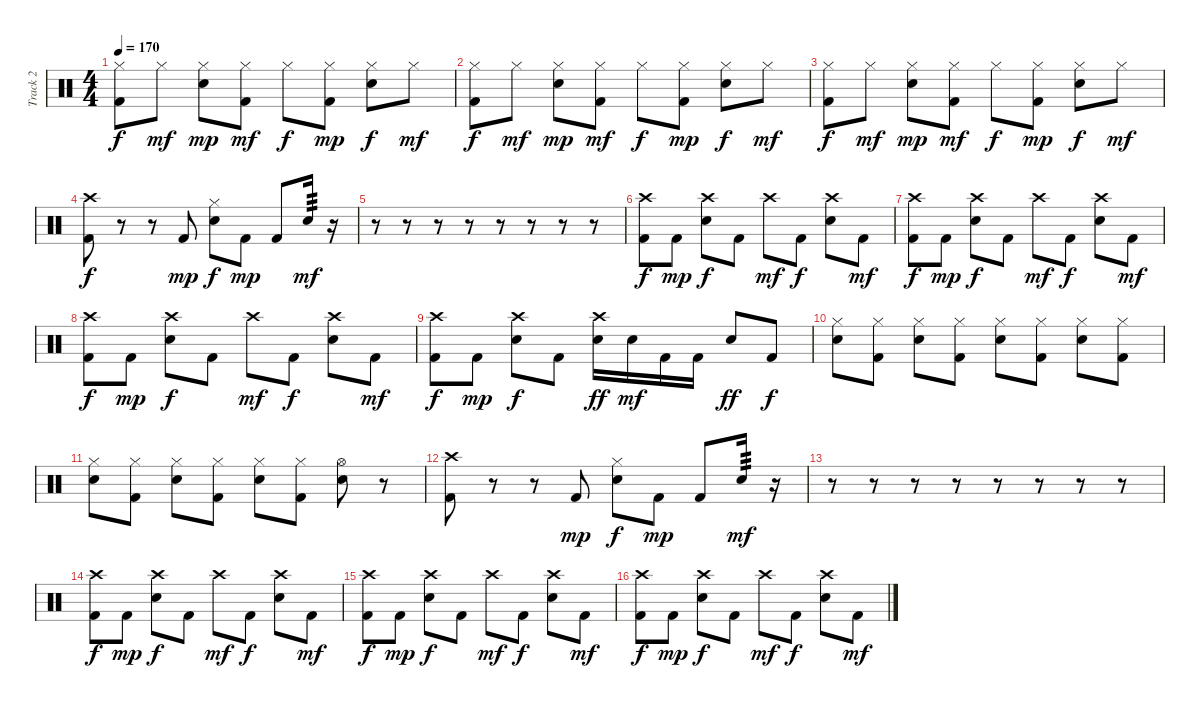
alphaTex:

\track ("Track 2" "Track 2") {instrument percussion}
\staff {score}
\articulation defaults
\ts (4 4)
\tempo 170
\clef neutral
\ks c
("Hi-Hat (closed)" "Kick (hit) 2").8{dy f} "Hi-Hat (closed)".8{dy mf} ("Hi-Hat (closed)" "Electric Snare (hit)").8{dy mp} ("Hi-Hat (closed)" "Kick (hit) 2").8{dy mf} "Hi-Hat (closed)".8{dy f} ("Hi-Hat (closed)" "Kick (hit) 2").8{dy mp} ("Hi-Hat (closed)" "Electric Snare (hit)").8{dy f} "Hi-Hat (closed)".8{dy mf} |
("Hi-Hat (closed)" "Kick (hit) 2").8{dy f} "Hi-Hat (closed)".8{dy mf} ("Hi-Hat (closed)" "Electric Snare (hit)").8{dy mp} ("Hi-Hat (closed)" "Kick (hit) 2").8{dy mf} "Hi-Hat (closed)".8{dy f} ("Hi-Hat (closed)" "Kick (hit) 2").8{dy mp} ("Hi-Hat (closed)" "Electric Snare (hit)").8{dy f} "Hi-Hat (closed)".8{dy mf} |
("Hi-Hat (closed)" "Kick (hit) 2").8{dy f} "Hi-Hat (closed)".8{dy mf} ("Hi-Hat (closed)" "Electric Snare (hit)").8{dy mp} ("Hi-Hat (closed)" "Kick (hit) 2").8{dy mf} "Hi-Hat (closed)".8{dy f} ("Hi-Hat (closed)" "Kick (hit) 2").8{dy mp} ("Hi-Hat (closed)" "Electric Snare (hit)").8{dy f} "Hi-Hat (closed)".8{dy mf} |
("Crash high (hit)" "Kick (hit) 2").8{dy f} r.8 r.8 "Kick (hit) 2".8{dy mp} ("Hi-Hat (closed)" "Electric Snare (hit)").8{dy f} "Kick (hit) 2".8{dy mp} "Kick (hit) 2".8 "Electric Snare (hit)".16{tp 3 dy mf} r.16 |
r.8 r.8 r.8 r.8 r.8 r.8 r.8 r.8 |
("Crash high (hit)" "Kick (hit) 2").8{dy f} "Kick (hit) 2".8{dy mp} ("Crash high (hit)" "Electric Snare (hit)").8{dy f} "Kick (hit) 2".8 "Crash high (hit)".8{dy mf} "Kick (hit) 2".8{dy f} ("Crash high (hit)" "Electric Snare (hit)").8 "Kick (hit) 2".8{dy mf} |
("Crash high (hit)" "Kick (hit) 2").8{dy f} "Kick (hit) 2".8{dy mp} ("Crash high (hit)" "Electric Snare (hit)").8{dy f} "Kick (hit) 2".8 "Crash high (hit)".8{dy mf} "Kick (hit) 2".8{dy f} ("Crash high (hit)" "Electric Snare (hit)").8 "Kick (hit) 2".8{dy mf} |
("Crash high (hit)" "Kick (hit) 2").8{dy f} "Kick (hit) 2".8{dy mp} ("Crash high (hit)" "Electric Snare (hit)").8{dy f} "Kick (hit) 2".8 "Crash high (hit)".8{dy mf} "Kick (hit) 2".8{dy f} ("Crash high (hit)" "Electric Snare (hit)").8 "Kick (hit) 2".8{dy mf} |
("Crash high (hit)" "Kick (hit) 2").8{dy f} "Kick (hit) 2".8{dy mp} ("Crash high (hit)" "Electric Snare (hit)").8{dy f} "Kick (hit) 2".8 ("Crash high (hit)" "Electric Snare (hit)").16{dy ff} "Electric Snare (hit)".16{dy mf} "Kick (hit) 2".16 "Kick (hit) 2".16 "Electric Snare (hit)".8{dy ff} "Kick (hit) 2".8{dy f} |
("Hi-Hat (closed)" "Electric Snare (hit)").8 ("Hi-Hat (closed)" "Kick (hit) 2").8 ("Hi-Hat (closed)" "Electric Snare (hit)").8 ("Hi-Hat (closed)" "Kick (hit) 2").8 ("Hi-Hat (closed)" "Electric Snare (hit)").8 ("Hi-Hat (closed)" "Kick (hit) 2").8 ("Hi-Hat (closed)" "Electric Snare (hit)").8 ("Hi-Hat (closed)" "Kick (hit) 2").8 |
("Hi-Hat (closed)" "Electric Snare (hit)").8 ("Hi-Hat (closed)" "Kick (hit) 2").8 ("Hi-Hat (closed)" "Electric Snare (hit)").8 ("Hi-Hat (closed)" "Kick (hit) 2").8 ("Hi-Hat (closed)" "Electric Snare (hit)").8 ("Hi-Hat (closed)" "Kick (hit) 2").8 ("Hi-Hat (open)" "Electric Snare (hit)").8 r.8 |
("Crash high (hit)" "Kick (hit) 2").8 r.8 r.8 "Kick (hit) 2".8{dy mp} ("Hi-Hat (closed)" "Electric Snare (hit)").8{dy f} "Kick (hit) 2".8{dy mp} "Kick (hit) 2".8 "Electric Snare (hit)".16{tp 3 dy mf} r.16 |
r.8 r.8 r.8 r.8 r.8 r.8 r.8 r.8 |
("Crash high (hit)" "Kick (hit) 2").8{dy f} "Kick (hit) 2".8{dy mp} ("Crash high (hit)" "Electric Snare (hit)").8{dy f} "Kick (hit) 2".8 "Crash high (hit)".8{dy mf} "Kick (hit) 2".8{dy f} ("Crash high (hit)" "Electric Snare (hit)").8 "Kick (hit) 2".8{dy mf} |
("Crash high (hit)" "Kick (hit) 2").8{dy f} "Kick (hit) 2".8{dy mp} ("Crash high (hit)" "Electric Snare (hit)").8{dy f} "Kick (hit) 2".8 "Crash high (hit)".8{dy mf} "Kick (hit) 2".8{dy f} ("Crash high (hit)" "Electric Snare (hit)").8 "Kick (hit) 2".8{dy mf} |
("Crash high (hit)" "Kick (hit) 2").8{dy f} "Kick (hit) 2".8{dy mp} ("Crash high (hit)" "Electric Snare (hit)").8{dy f} "Kick (hit) 2".8 "Crash high (hit)".8{dy mf} "Kick (hit) 2".8{dy f} ("Crash high (hit)" "Electric Snare (hit)").8 "Kick (hit) 2".8{dy mf}
